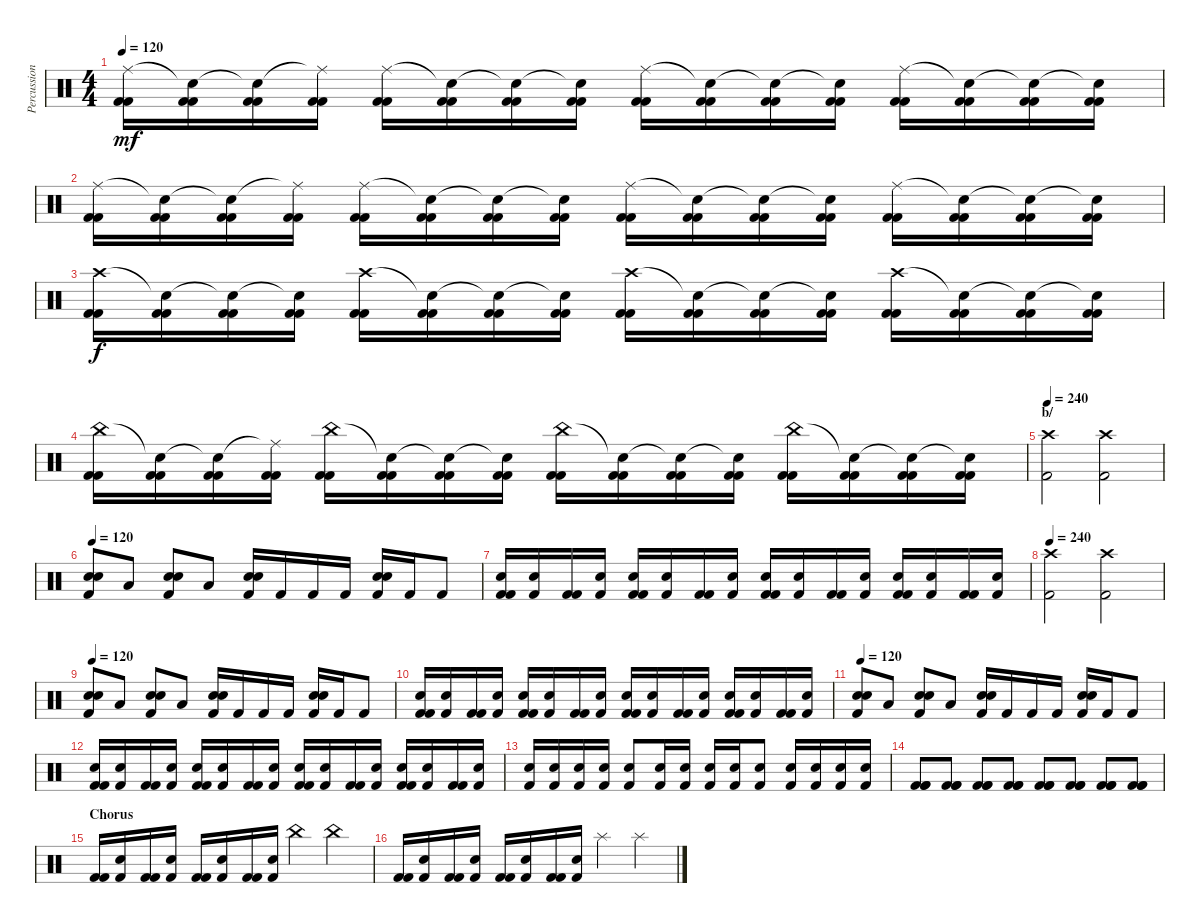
\track ("Percussions" "Percussion") {instrument percussion}
\staff {score}
\articulation defaults
\ts (4 4)
\tempo 120
\clef neutral
\ks c
("Ride (middle)" "Kick (hit) 2" "Kick (hit) 2").16{dy mf} ("Snare (hit)"{t} "Kick (hit) 2" "Kick (hit) 2").16 ("Snare (hit)"{t} "Kick (hit) 2" "Kick (hit) 2").16 ("Ride (middle)"{t} "Kick (hit) 2" "Kick (hit) 2").16 ("Ride (middle)" "Kick (hit) 2" "Kick (hit) 2").16 ("Snare (hit)"{t} "Kick (hit) 2" "Kick (hit) 2").16 ("Snare (hit)"{t} "Kick (hit) 2" "Kick (hit) 2").16 ("Snare (hit)"{t} "Kick (hit) 2" "Kick (hit) 2").16 ("Ride (middle)" "Kick (hit) 2" "Kick (hit) 2").16 ("Snare (hit)"{t} "Kick (hit) 2" "Kick (hit) 2").16 ("Snare (hit)"{t} "Kick (hit) 2" "Kick (hit) 2").16 ("Snare (hit)"{t} "Kick (hit) 2" "Kick (hit) 2").16 ("Ride (middle)" "Kick (hit) 2" "Kick (hit) 2").16 ("Snare (hit)"{t} "Kick (hit) 2" "Kick (hit) 2").16 ("Snare (hit)"{t} "Kick (hit) 2" "Kick (hit) 2").16 ("Snare (hit)"{t} "Kick (hit) 2" "Kick (hit) 2").16 |
("Ride (middle)" "Kick (hit) 2" "Kick (hit) 2").16 ("Snare (hit)"{t} "Kick (hit) 2" "Kick (hit) 2").16 ("Snare (hit)"{t} "Kick (hit) 2" "Kick (hit) 2").16 ("Ride (middle)"{t} "Kick (hit) 2" "Kick (hit) 2").16 ("Ride (middle)" "Kick (hit) 2" "Kick (hit) 2").16 ("Snare (hit)"{t} "Kick (hit) 2" "Kick (hit) 2").16 ("Snare (hit)"{t} "Kick (hit) 2" "Kick (hit) 2").16 ("Snare (hit)"{t} "Kick (hit) 2" "Kick (hit) 2").16 ("Ride (middle)" "Kick (hit) 2" "Kick (hit) 2").16 ("Snare (hit)"{t} "Kick (hit) 2" "Kick (hit) 2").16 ("Snare (hit)"{t} "Kick (hit) 2" "Kick (hit) 2").16 ("Snare (hit)"{t} "Kick (hit) 2" "Kick (hit) 2").16 ("Ride (middle)" "Kick (hit) 2" "Kick (hit) 2").16 ("Snare (hit)"{t} "Kick (hit) 2" "Kick (hit) 2").16 ("Snare (hit)"{t} "Kick (hit) 2" "Kick (hit) 2").16 ("Snare (hit)"{t} "Kick (hit) 2" "Kick (hit) 2").16 |
("Crash high (hit)" "Kick (hit) 2" "Kick (hit) 2").16{dy f} ("Snare (hit)"{t} "Kick (hit) 2" "Kick (hit) 2").16 ("Snare (hit)"{t} "Kick (hit) 2" "Kick (hit) 2").16 ("Snare (hit)"{t} "Kick (hit) 2" "Kick (hit) 2").16 ("Crash high (hit)" "Kick (hit) 2" "Kick (hit) 2").16 ("Snare (hit)"{t} "Kick (hit) 2" "Kick (hit) 2").16 ("Snare (hit)"{t} "Kick (hit) 2" "Kick (hit) 2").16 ("Snare (hit)"{t} "Kick (hit) 2" "Kick (hit) 2").16 ("Crash high (hit)" "Kick (hit) 2" "Kick (hit) 2").16 ("Snare (hit)"{t} "Kick (hit) 2" "Kick (hit) 2").16 ("Snare (hit)"{t} "Kick (hit) 2" "Kick (hit) 2").16 ("Snare (hit)"{t} "Kick (hit) 2" "Kick (hit) 2").16 ("Crash high (hit)" "Kick (hit) 2" "Kick (hit) 2").16 ("Snare (hit)"{t} "Kick (hit) 2" "Kick (hit) 2").16 ("Snare (hit)"{t} "Kick (hit) 2" "Kick (hit) 2").16 ("Snare (hit)"{t} "Kick (hit) 2" "Kick (hit) 2").16 |
("China (hit)" "Kick (hit) 2" "Kick (hit) 2").16 ("Snare (hit)"{t} "Kick (hit) 2" "Kick (hit) 2").16 ("Snare (hit)"{t} "Kick (hit) 2" "Kick (hit) 2").16 ("Ride (middle)"{t} "Kick (hit) 2" "Kick (hit) 2").16 ("China (hit)" "Kick (hit) 2" "Kick (hit) 2").16 ("Snare (hit)"{t} "Kick (hit) 2" "Kick (hit) 2").16 ("Snare (hit)"{t} "Kick (hit) 2" "Kick (hit) 2").16 ("Snare (hit)"{t} "Kick (hit) 2" "Kick (hit) 2").16 ("China (hit)" "Kick (hit) 2" "Kick (hit) 2").16 ("Snare (hit)"{t} "Kick (hit) 2" "Kick (hit) 2").16 ("Snare (hit)"{t} "Kick (hit) 2" "Kick (hit) 2").16 ("Snare (hit)"{t} "Kick (hit) 2" "Kick (hit) 2").16 ("China (hit)" "Kick (hit) 2" "Kick (hit) 2").16 ("Snare (hit)"{t} "Kick (hit) 2" "Kick (hit) 2").16 ("Snare (hit)"{t} "Kick (hit) 2" "Kick (hit) 2").16 ("Snare (hit)"{t} "Kick (hit) 2" "Kick (hit) 2").16 |
\section ("" "b/")
\tempo 240
("Crash high (hit)" "Kick (hit) 2").2 ("Crash high (hit)" "Kick (hit) 2").2 |
\tempo 120
("Electric Snare (hit)" "Electric Snare (hit)" "Kick (hit) 2").8{volume 14} "Low Tom (hit)".8 ("Electric Snare (hit)" "Electric Snare (hit)" "Kick (hit) 2").8 "Low Floor Tom (hit)".8 ("Electric Snare (hit)" "Kick (hit) 2" "Electric Snare (hit)").16 "Kick (hit) 2".16 "Kick (hit) 2".16 "Kick (hit) 2".16 ("Electric Snare (hit)" "Electric Snare (hit)" "Kick (hit) 2").16 "Kick (hit) 2".16 "Kick (hit) 2".8 |
("Kick (hit) 2" "Kick (hit) 2" "Electric Snare (hit)").16 ("Snare (hit) 2" "Kick (hit) 2").16 ("Kick (hit) 2" "Kick (hit) 2").16 ("Snare (hit) 2" "Kick (hit) 2").16 ("Kick (hit) 2" "Kick (hit) 2" "Electric Snare (hit)").16 ("Snare (hit) 2" "Kick (hit) 2").16 ("Kick (hit) 2" "Kick (hit) 2").16 ("Snare (hit) 2" "Kick (hit) 2").16 ("Kick (hit) 2" "Kick (hit) 2" "Electric Snare (hit)").16 ("Snare (hit) 2" "Kick (hit) 2").16 ("Kick (hit) 2" "Kick (hit) 2").16 ("Snare (hit) 2" "Kick (hit) 2").16 ("Kick (hit) 2" "Kick (hit) 2" "Electric Snare (hit)").16 ("Snare (hit) 2" "Kick (hit) 2").16 ("Kick (hit) 2" "Kick (hit) 2").16 ("Snare (hit) 2" "Kick (hit) 2").16 |
\tempo 240
("Crash high (hit)" "Kick (hit) 2").2 ("Crash high (hit)" "Kick (hit) 2").2 |
\tempo 120
("Electric Snare (hit)" "Electric Snare (hit)" "Kick (hit) 2").8{volume 14} "Low Tom (hit)".8 ("Electric Snare (hit)" "Electric Snare (hit)" "Kick (hit) 2").8 "Low Floor Tom (hit)".8 ("Electric Snare (hit)" "Kick (hit) 2" "Electric Snare (hit)").16 "Kick (hit) 2".16 "Kick (hit) 2".16 "Kick (hit) 2".16 ("Electric Snare (hit)" "Electric Snare (hit)" "Kick (hit) 2").16 "Kick (hit) 2".16 "Kick (hit) 2".8 |
("Kick (hit) 2" "Kick (hit) 2" "Electric Snare (hit)").16 ("Snare (hit) 2" "Kick (hit) 2").16 ("Kick (hit) 2" "Kick (hit) 2").16 ("Snare (hit) 2" "Kick (hit) 2").16 ("Kick (hit) 2" "Kick (hit) 2" "Electric Snare (hit)").16 ("Snare (hit) 2" "Kick (hit) 2").16 ("Kick (hit) 2" "Kick (hit) 2").16 ("Snare (hit) 2" "Kick (hit) 2").16 ("Kick (hit) 2" "Kick (hit) 2" "Electric Snare (hit)").16 ("Snare (hit) 2" "Kick (hit) 2").16 ("Kick (hit) 2" "Kick (hit) 2").16 ("Snare (hit) 2" "Kick (hit) 2").16 ("Kick (hit) 2" "Kick (hit) 2" "Electric Snare (hit)").16 ("Snare (hit) 2" "Kick (hit) 2").16 ("Kick (hit) 2" "Kick (hit) 2").16 ("Snare (hit) 2" "Kick (hit) 2").16 |
\tempo 120
("Electric Snare (hit)" "Electric Snare (hit)" "Kick (hit) 2").8{volume 14} "Low Tom (hit)".8 ("Electric Snare (hit)" "Electric Snare (hit)" "Kick (hit) 2").8 "Low Floor Tom (hit)".8 ("Electric Snare (hit)" "Kick (hit) 2" "Electric Snare (hit)").16 "Kick (hit) 2".16 "Kick (hit) 2".16 "Kick (hit) 2".16 ("Electric Snare (hit)" "Electric Snare (hit)" "Kick (hit) 2").16 "Kick (hit) 2".16 "Kick (hit) 2".8 |
("Kick (hit) 2" "Kick (hit) 2" "Electric Snare (hit)").16 ("Snare (hit) 2" "Kick (hit) 2").16 ("Kick (hit) 2" "Kick (hit) 2").16 ("Snare (hit) 2" "Kick (hit) 2").16 ("Kick (hit) 2" "Kick (hit) 2" "Electric Snare (hit)").16 ("Snare (hit) 2" "Kick (hit) 2").16 ("Kick (hit) 2" "Kick (hit) 2").16 ("Snare (hit) 2" "Kick (hit) 2").16 ("Kick (hit) 2" "Kick (hit) 2" "Electric Snare (hit)").16 ("Snare (hit) 2" "Kick (hit) 2").16 ("Kick (hit) 2" "Kick (hit) 2").16 ("Snare (hit) 2" "Kick (hit) 2").16 ("Kick (hit) 2" "Kick (hit) 2" "Electric Snare (hit)").16 ("Snare (hit) 2" "Kick (hit) 2").16 ("Kick (hit) 2" "Kick (hit) 2").16 ("Snare (hit) 2" "Kick (hit) 2").16 |
("Snare (hit) 2" "Kick (hit) 2").16 ("Snare (hit) 2" "Kick (hit) 2").16 ("Snare (hit) 2" "Kick (hit) 2").16 ("Snare (hit) 2" "Kick (hit) 2").16 ("Snare (hit) 2" "Kick (hit) 2").8 ("Snare (hit) 2" "Kick (hit) 2").16 ("Snare (hit) 2" "Kick (hit) 2").16 ("Snare (hit) 2" "Kick (hit) 2").16 ("Snare (hit) 2" "Kick (hit) 2").16 ("Snare (hit) 2" "Kick (hit) 2").8 ("Snare (hit) 2" "Kick (hit) 2").16 ("Snare (hit) 2" "Kick (hit) 2").16 ("Snare (hit) 2" "Kick (hit) 2").16 ("Snare (hit) 2" "Kick (hit) 2").16 |
("Kick (hit) 2" "Kick (hit) 2" "Kick (hit) 2").8 ("Kick (hit) 2" "Kick (hit) 2" "Kick (hit) 2").8 ("Kick (hit) 2" "Kick (hit) 2" "Kick (hit) 2").8 ("Kick (hit) 2" "Kick (hit) 2" "Kick (hit) 2").8 ("Kick (hit) 2" "Kick (hit) 2" "Kick (hit) 2").8 ("Kick (hit) 2" "Kick (hit) 2" "Kick (hit) 2").8 ("Kick (hit) 2" "Kick (hit) 2" "Kick (hit) 2").8 ("Kick (hit) 2" "Kick (hit) 2" "Kick (hit) 2").8 |
\section ("" "Chorus")
("Kick (hit) 2" "Kick (hit) 2").16 ("Snare (hit) 2" "Kick (hit) 2").16 ("Kick (hit) 2" "Kick (hit) 2").16 ("Snare (hit) 2" "Kick (hit) 2").16 ("Kick (hit) 2" "Kick (hit) 2").16 ("Snare (hit) 2" "Kick (hit) 2").16 ("Kick (hit) 2" "Kick (hit) 2").16 ("Snare (hit) 2" "Kick (hit) 2").16 "China (hit)".4 "China (hit)".4 |
("Kick (hit) 2" "Kick (hit) 2").16 ("Snare (hit) 2" "Kick (hit) 2").16 ("Kick (hit) 2" "Kick (hit) 2").16 ("Snare (hit) 2" "Kick (hit) 2").16 ("Kick (hit) 2" "Kick (hit) 2").16 ("Snare (hit) 2" "Kick (hit) 2").16 ("Kick (hit) 2" "Kick (hit) 2").16 ("Snare (hit) 2" "Kick (hit) 2").16 "Splash (hit)".4 "Splash (hit)".4
